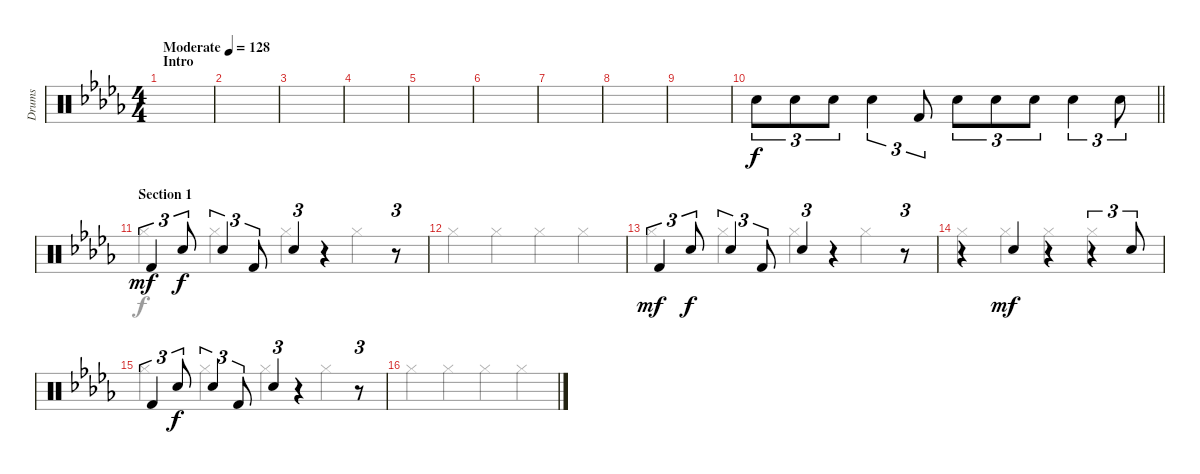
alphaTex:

\track ("Drums" "Drums") {instrument percussion}
\staff {score}
\articulation defaults
\voice
\ts (4 4)
\section ("" "Intro")
\tempo (128 "Moderate")
\clef neutral
\ks db
|
|
|
|
|
|
|
|
|
\barLineRight lightlight "Electric Snare (hit)".8{tu (3 2)} "Electric Snare (hit)".8{tu (3 2)} "Electric Snare (hit)".8{tu (3 2)} "Electric Snare (hit)".4{tu (3 2)} "Kick (hit) 2".8{tu (3 2)} "Electric Snare (hit)".8{tu (3 2)} "Electric Snare (hit)".8{tu (3 2)} "Electric Snare (hit)".8{tu (3 2)} "Electric Snare (hit)".4{tu (3 2)} "Electric Snare (hit)".8{tu (3 2)}
|
\section ("" "Section 1")
"Kick (hit) 2".4{tu (3 2) dy mf} "Electric Snare (hit)".8{tu (3 2) dy f} "Electric Snare (hit)".4{tu (3 2)} "Kick (hit) 2".8{tu (3 2)} "Electric Snare (hit)".4{tu (3 2)} r.4 r.8{tu (3 2)} |
|
"Kick (hit) 2".4{tu (3 2) dy mf} "Electric Snare (hit)".8{tu (3 2) dy f} "Electric Snare (hit)".4{tu (3 2)} "Kick (hit) 2".8{tu (3 2)} "Electric Snare (hit)".4{tu (3 2)} r.4 r.8{tu (3 2)} |
r.4 "Electric Snare (hit)".4{dy mf} r.4 r.4{tu (3 2)} "Electric Snare (hit)".8{tu (3 2)} |
"Kick (hit) 2".4{tu (3 2)} "Electric Snare (hit)".8{tu (3 2) dy f} "Electric Snare (hit)".4{tu (3 2)} "Kick (hit) 2".8{tu (3 2)} "Electric Snare (hit)".4{tu (3 2)} r.4 r.8{tu (3 2)} |
\voice
\clef neutral
\ottava regular
\simile none
\ks db
|
|
|
|
|
|
|
|
|
\barLineRight lightlight
|
"Hi-Hat (closed)".4 "Hi-Hat (closed)".4 "Hi-Hat (closed)".4 "Hi-Hat (closed)".4 |
"Hi-Hat (closed)".4 "Hi-Hat (closed)".4 "Hi-Hat (closed)".4 "Hi-Hat (closed)".4 |
"Hi-Hat (closed)".4 "Hi-Hat (closed)".4 "Hi-Hat (closed)".4 "Hi-Hat (closed)".4 |
"Hi-Hat (closed)".4 "Hi-Hat (closed)".4 "Hi-Hat (closed)".4 "Hi-Hat (closed)".4 |
"Hi-Hat (closed)".4 "Hi-Hat (closed)".4 "Hi-Hat (closed)".4 "Hi-Hat (closed)".4 |
"Hi-Hat (closed)".4 "Hi-Hat (closed)".4 "Hi-Hat (closed)".4 "Hi-Hat (closed)".4
